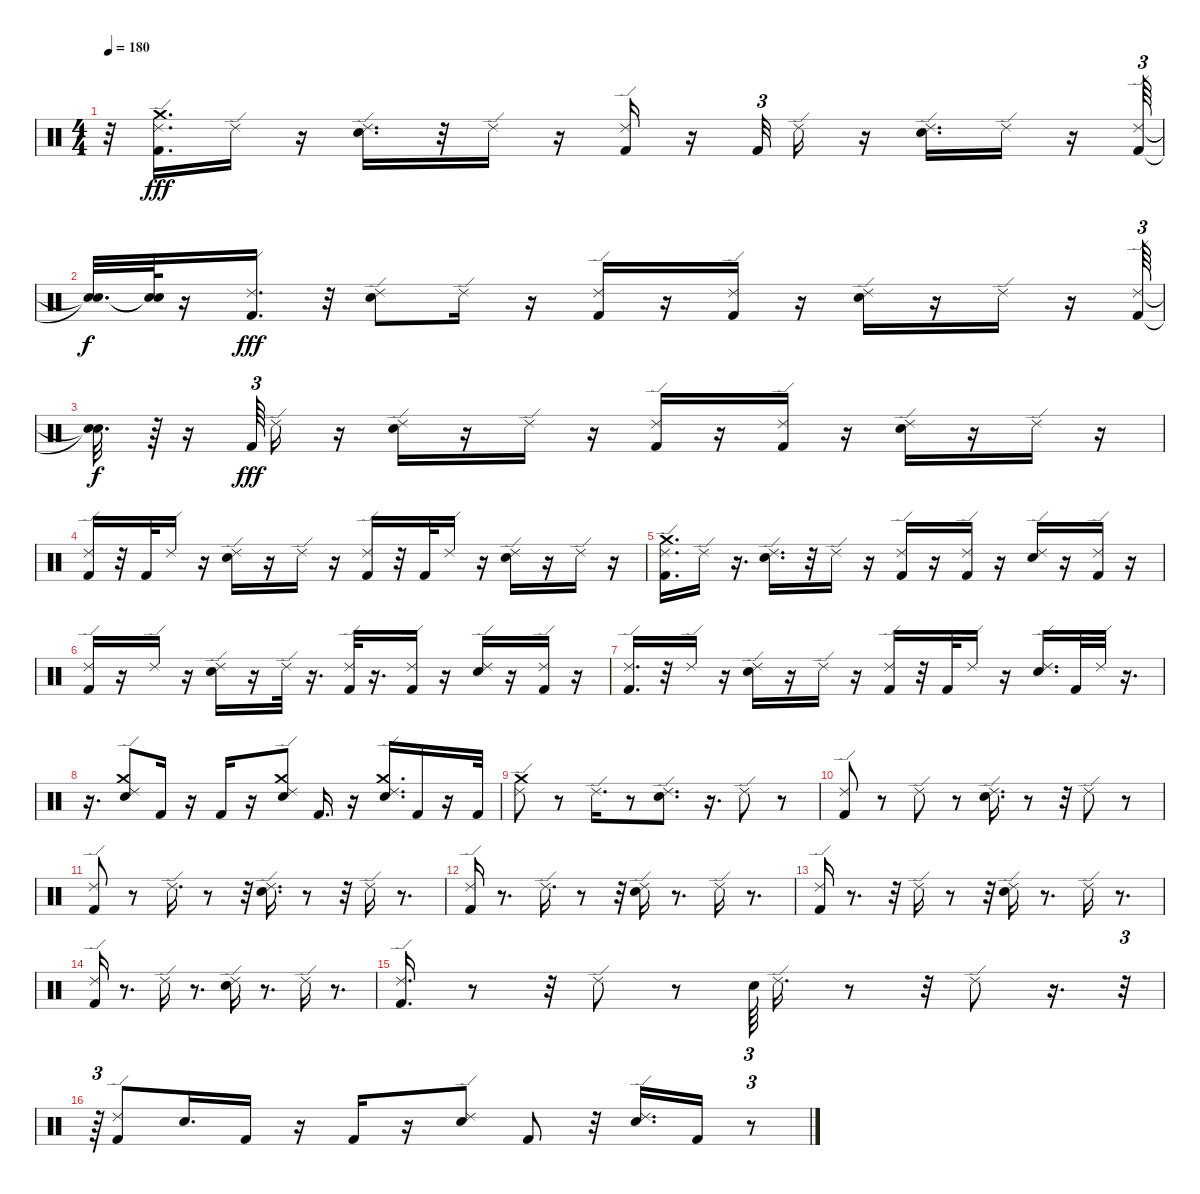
\track "" {instrument percussion}
\staff {score}
\articulation defaults
\ts (4 4)
\tempo 180
\clef neutral
\ks c
r.32{dy fff} ("Kick (hit) 2" "Ride (edge) 2" "Crash medium (hit)").16{d} "Ride (edge) 2".16 r.16 ("Ride (edge) 2" "Snare (hit) 2").16{d} r.32 "Ride (edge) 2".16 r.16 ("Kick (hit) 2" "Ride (edge) 2").16 r.16 "Kick (hit) 2".32{tu (3 2)} "Ride (edge) 2".16 r.16 ("Ride (edge) 2" "Snare (hit) 2").16{d} "Ride (edge) 2".16 r.16 ("Kick (hit) 2" "Ride (edge) 2").64{tu (3 2)} |
("Snare (hit)"{t} "Snare (hit)"{t}).32{d dy f} ("Snare (hit)"{t} "Snare (hit)"{t}).64 r.16 ("Kick (hit) 2" "Ride (edge) 2").16{d dy fff} r.32 ("Snare (hit) 2" "Ride (edge) 2").8 "Ride (edge) 2".16 r.16 ("Kick (hit) 2" "Ride (edge) 2").16 r.16 ("Kick (hit) 2" "Ride (edge) 2").16 r.16 ("Ride (edge) 2" "Snare (hit) 2").16 r.16 "Ride (edge) 2".16 r.16 ("Kick (hit) 2" "Ride (edge) 2").64{tu (3 2)} |
("Snare (hit)"{t} "Snare (hit)"{t}).32{d dy f} r.64 r.16 "Kick (hit) 2".64{tu (3 2) dy fff} "Ride (edge) 2".16 r.16 ("Ride (edge) 2" "Snare (hit) 2").16 r.16 "Ride (edge) 2".16 r.16 ("Kick (hit) 2" "Ride (edge) 2").16 r.16 ("Kick (hit) 2" "Ride (edge) 2").16 r.16 ("Ride (edge) 2" "Snare (hit) 2").16 r.16 "Ride (edge) 2".16 r.16 |
("Kick (hit) 2" "Ride (edge) 2").16 r.32 "Kick (hit) 2".32 "Ride (edge) 2".16 r.16 ("Ride (edge) 2" "Snare (hit) 2").16 r.16 "Ride (edge) 2".16 r.16 ("Kick (hit) 2" "Ride (edge) 2").16 r.32 "Kick (hit) 2".32 "Ride (edge) 2".16 r.16 ("Ride (edge) 2" "Snare (hit) 2").16 r.16 "Ride (edge) 2".16 r.16 |
("Kick (hit) 2" "Ride (edge) 2" "Crash medium (hit)").16{d} "Ride (edge) 2".16 r.16{d} ("Ride (edge) 2" "Snare (hit) 2").16{d} r.32 "Ride (edge) 2".16 r.16 ("Kick (hit) 2" "Ride (edge) 2").16 r.16 ("Kick (hit) 2" "Ride (edge) 2").16 r.16 ("Ride (edge) 2" "Snare (hit) 2").16 r.16 ("Kick (hit) 2" "Ride (edge) 2").16 r.16 |
("Kick (hit) 2" "Ride (edge) 2").16 r.16 "Ride (edge) 2".16 r.16 ("Ride (edge) 2" "Snare (hit) 2").16 r.16 "Ride (edge) 2".32 r.16{d} ("Kick (hit) 2" "Ride (edge) 2").32 r.16{d} ("Kick (hit) 2" "Ride (edge) 2").16 r.16 ("Ride (edge) 2" "Snare (hit) 2").16 r.16 ("Kick (hit) 2" "Ride (edge) 2").16 r.16 |
("Kick (hit) 2" "Ride (edge) 2").16{d} r.32 "Ride (edge) 2".16 r.16 ("Ride (edge) 2" "Snare (hit) 2").16 r.16 "Ride (edge) 2".16 r.16 ("Kick (hit) 2" "Ride (edge) 2").16 r.32 "Kick (hit) 2".32 "Ride (edge) 2".16 r.16 ("Ride (edge) 2" "Snare (hit) 2").16{d} "Kick (hit) 2".32 "Ride (edge) 2".32 r.16{d} |
r.16{d} ("Ride (edge) 2" "Crash medium (hit)" "Snare (hit) 2").8 "Kick (hit) 2".16 r.16 "Kick (hit) 2".16 r.16 ("Ride (edge) 2" "Crash medium (hit)" "Snare (hit) 2").8 "Kick (hit) 2".16{d} r.16 ("Ride (edge) 2" "Crash medium (hit)" "Snare (hit) 2").16{d} "Kick (hit) 2".16 r.16 "Kick (hit) 2".32 |
("Ride (edge) 2" "Crash medium (hit)").8 r.8 "Ride (edge) 2".16{d} r.8 ("Ride (edge) 2" "Snare (hit) 2").8{d} r.16{d} "Ride (edge) 2".8 r.8 |
("Kick (hit) 2" "Ride (edge) 2").8 r.8 "Ride (edge) 2".8 r.8 ("Ride (edge) 2" "Snare (hit) 2").16{d} r.8 r.32 "Ride (edge) 2".8 r.8 |
("Kick (hit) 2" "Ride (edge) 2").8 r.8 "Ride (edge) 2".16{d} r.8 r.32 ("Ride (edge) 2" "Snare (hit) 2").16{d} r.8 r.32 "Ride (edge) 2".16 r.8{d} |
("Kick (hit) 2" "Ride (edge) 2").16 r.8{d} "Ride (edge) 2".16{d} r.8 r.32 ("Ride (edge) 2" "Snare (hit) 2").16 r.8{d} "Ride (edge) 2".16 r.8{d} |
("Kick (hit) 2" "Ride (edge) 2").16 r.8{d} r.32 "Ride (edge) 2".16 r.8 r.32 ("Ride (edge) 2" "Snare (hit) 2").16 r.8{d} "Ride (edge) 2".16 r.8{d} |
("Kick (hit) 2" "Ride (edge) 2").16 r.8{d} "Ride (edge) 2".16 r.8{d} ("Ride (edge) 2" "Snare (hit) 2").16 r.8{d} "Ride (edge) 2".16 r.8{d} |
("Kick (hit) 2" "Ride (edge) 2").16{d} r.8 r.32 "Ride (edge) 2".8 r.8 "Snare (hit) 2".64{tu (3 2)} "Ride (edge) 2".16{d} r.8 r.32 "Ride (edge) 2".8 r.16{d} r.32{tu (3 2)} |
r.64{tu (3 2)} ("Kick (hit) 2" "Ride (edge) 2").8 "Snare (hit) 2".16{d} "Kick (hit) 2".16 r.16 "Kick (hit) 2".16 r.16 ("Ride (edge) 2" "Snare (hit) 2").8 "Kick (hit) 2".8 r.32 ("Ride (edge) 2" "Snare (hit) 2").16{d} "Kick (hit) 2".16 r.8{tu (3 2)}
